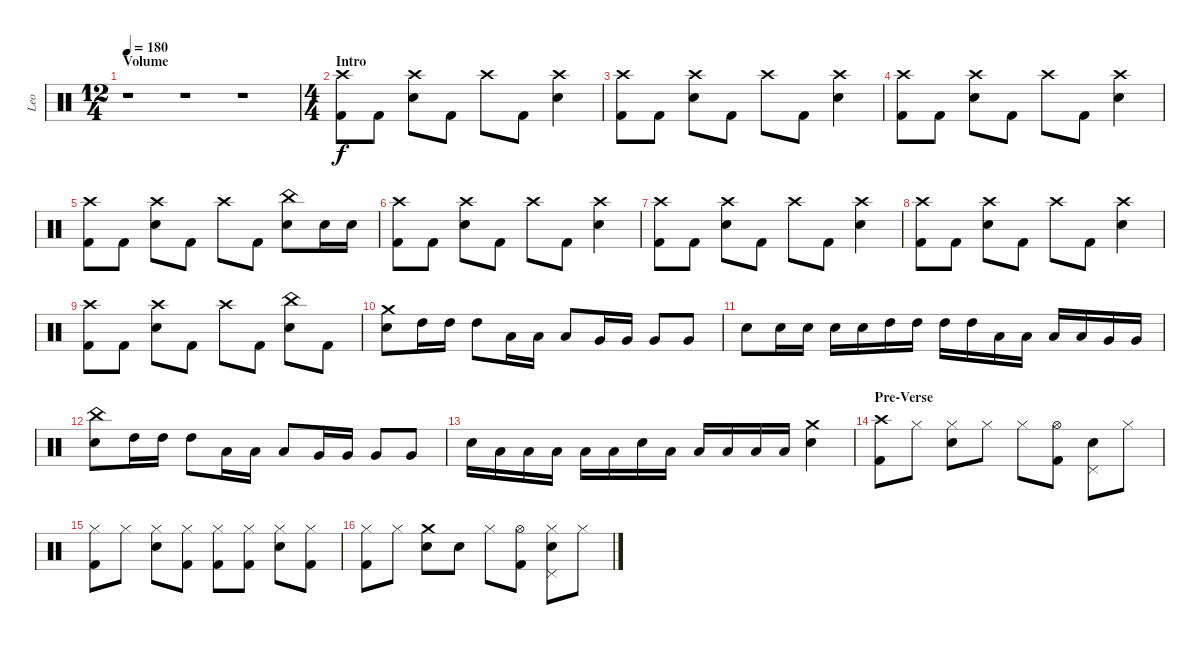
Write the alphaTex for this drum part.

\track ("Leo" "Leo") {instrument percussion}
\staff {score}
\articulation defaults
\ts (12 4)
\section ("" "Volume")
\tempo 180
\clef neutral
\ks c
r.1{dy f} r.1 r.1 |
\ts (4 4)
\section ("" "Intro")
("Crash high (hit)" "Kick (hit) 2").8 "Kick (hit) 2".8 ("Crash high (hit)" "Electric Snare (hit)").8 "Kick (hit) 2".8 "Crash high (hit)".8 "Kick (hit) 2".8 ("Crash high (hit)" "Electric Snare (hit)").4 |
("Crash high (hit)" "Kick (hit) 2").8 "Kick (hit) 2".8 ("Crash high (hit)" "Electric Snare (hit)").8 "Kick (hit) 2".8 "Crash high (hit)".8 "Kick (hit) 2".8 ("Crash high (hit)" "Electric Snare (hit)").4 |
("Crash high (hit)" "Kick (hit) 2").8 "Kick (hit) 2".8 ("Crash high (hit)" "Electric Snare (hit)").8 "Kick (hit) 2".8 "Crash high (hit)".8 "Kick (hit) 2".8 ("Crash high (hit)" "Electric Snare (hit)").4 |
("Crash high (hit)" "Kick (hit) 2").8 "Kick (hit) 2".8 ("Crash high (hit)" "Electric Snare (hit)").8 "Kick (hit) 2".8 "Crash high (hit)".8 "Kick (hit) 2".8 ("China (hit)" "Electric Snare (hit)").8 "Electric Snare (hit)".16 "Electric Snare (hit)".16 |
("Crash high (hit)" "Kick (hit) 2").8 "Kick (hit) 2".8 ("Crash high (hit)" "Electric Snare (hit)").8 "Kick (hit) 2".8 "Crash high (hit)".8 "Kick (hit) 2".8 ("Crash high (hit)" "Electric Snare (hit)").4 |
("Crash high (hit)" "Kick (hit) 2").8 "Kick (hit) 2".8 ("Crash high (hit)" "Electric Snare (hit)").8 "Kick (hit) 2".8 "Crash high (hit)".8 "Kick (hit) 2".8 ("Crash high (hit)" "Electric Snare (hit)").4 |
("Crash high (hit)" "Kick (hit) 2").8 "Kick (hit) 2".8 ("Crash high (hit)" "Electric Snare (hit)").8 "Kick (hit) 2".8 "Crash high (hit)".8 "Kick (hit) 2".8 ("Crash high (hit)" "Electric Snare (hit)").4 |
("Crash high (hit)" "Kick (hit) 2").8 "Kick (hit) 2".8 ("Crash high (hit)" "Electric Snare (hit)").8 "Kick (hit) 2".8 "Crash high (hit)".8 "Kick (hit) 2".8 ("China (hit)" "Electric Snare (hit)").8 "Kick (hit) 2".8 |
("Crash medium (hit)" "Electric Snare (hit)").8 "High Tom (hit)".16 "High Tom (hit)".16 "High Tom (hit)".8 "Low Tom (hit)".16 "Low Tom (hit)".16 "Low Tom (hit)".8 "Very Low Tom (hit)".16 "Very Low Tom (hit)".16 "Very Low Tom (hit)".8 "Very Low Tom (hit)".8 |
"Electric Snare (hit)".8 "Electric Snare (hit)".16 "Electric Snare (hit)".16 "Electric Snare (hit)".16 "Electric Snare (hit)".16 "High Tom (hit)".16 "High Tom (hit)".16 "High Tom (hit)".16 "High Tom (hit)".16 "Low Tom (hit)".16 "Low Tom (hit)".16 "Low Tom (hit)".16 "Low Tom (hit)".16 "Very Low Tom (hit)".16 "Very Low Tom (hit)".16 |
("China (hit)" "Electric Snare (hit)").8 "High Tom (hit)".16 "High Tom (hit)".16 "High Tom (hit)".8 "Low Tom (hit)".16 "Low Tom (hit)".16 "Low Tom (hit)".8 "Very Low Tom (hit)".16 "Very Low Tom (hit)".16 "Very Low Tom (hit)".8 "Very Low Tom (hit)".8 |
"Electric Snare (hit)".16 "Low Tom (hit)".16 "Low Tom (hit)".16 "Low Tom (hit)".16 "Low Tom (hit)".16 "Low Tom (hit)".16 "Electric Snare (hit)".16 "Low Tom (hit)".16 "Low Tom (hit)".16 "Low Tom (hit)".16 "Low Tom (hit)".16 "Low Tom (hit)".16 ("Crash medium (hit)" "Electric Snare (hit)").4 |
\section ("" "Pre-Verse")
("Crash high (hit)" "Kick (hit) 2").8 "Hi-Hat (closed)".8 ("Hi-Hat (closed)" "Electric Snare (hit)").8 "Hi-Hat (closed)".8 "Hi-Hat (closed)".8 ("Hi-Hat (open)" "Kick (hit) 2").8 ("Pedal Hi-Hat (hit)" "Electric Snare (hit)").8 "Hi-Hat (closed)".8 |
("Hi-Hat (closed)" "Kick (hit) 2").8 "Hi-Hat (closed)".8 ("Hi-Hat (closed)" "Electric Snare (hit)").8 ("Hi-Hat (closed)" "Kick (hit) 2").8 ("Hi-Hat (closed)" "Kick (hit) 2").8 ("Hi-Hat (closed)" "Kick (hit) 2").8 ("Hi-Hat (closed)" "Electric Snare (hit)").8 ("Hi-Hat (closed)" "Kick (hit) 2").8 |
("Hi-Hat (closed)" "Kick (hit) 2").8 "Hi-Hat (closed)".8 ("Crash medium (hit)" "Electric Snare (hit)").8 "Electric Snare (hit)".8 "Hi-Hat (closed)".8 ("Hi-Hat (open)" "Kick (hit) 2").8 ("Hi-Hat (closed)" "Electric Snare (hit)" "Pedal Hi-Hat (hit)").8 "Hi-Hat (closed)".8
